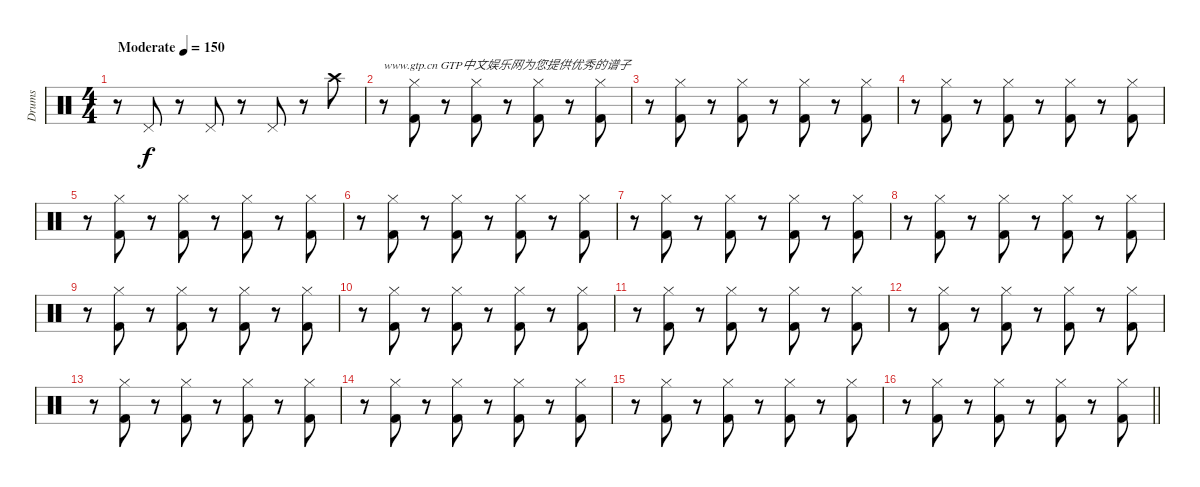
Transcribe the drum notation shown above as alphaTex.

\track ("Drums" "Drums") {instrument percussion}
\staff {score}
\articulation defaults
\ts (4 4)
\tempo (150 "Moderate")
\clef neutral
\ks c
r.8{dy f} "Pedal Hi-Hat (hit)".8 r.8 "Pedal Hi-Hat (hit)".8 r.8 "Pedal Hi-Hat (hit)".8 r.8 "Crash high (hit)".8 |
r.8{txt "www.gtp.cn GTP中文娱乐网为您提供优秀的谱子"} ("Kick (hit) 2" "Hi-Hat (closed)").8 r.8 ("Kick (hit) 2" "Hi-Hat (closed)").8 r.8 ("Kick (hit) 2" "Hi-Hat (closed)").8 r.8 ("Kick (hit) 2" "Hi-Hat (closed)").8 |
r.8 ("Kick (hit) 2" "Hi-Hat (closed)").8 r.8 ("Kick (hit) 2" "Hi-Hat (closed)").8 r.8 ("Kick (hit) 2" "Hi-Hat (closed)").8 r.8 ("Kick (hit) 2" "Hi-Hat (closed)").8 |
r.8 ("Kick (hit) 2" "Hi-Hat (closed)").8 r.8 ("Kick (hit) 2" "Hi-Hat (closed)").8 r.8 ("Kick (hit) 2" "Hi-Hat (closed)").8 r.8 ("Kick (hit) 2" "Hi-Hat (closed)").8 |
r.8 ("Kick (hit) 2" "Hi-Hat (closed)").8 r.8 ("Kick (hit) 2" "Hi-Hat (closed)").8 r.8 ("Kick (hit) 2" "Hi-Hat (closed)").8 r.8 ("Kick (hit) 2" "Hi-Hat (closed)").8 |
r.8 ("Kick (hit) 2" "Hi-Hat (closed)").8 r.8 ("Kick (hit) 2" "Hi-Hat (closed)").8 r.8 ("Kick (hit) 2" "Hi-Hat (closed)").8 r.8 ("Kick (hit) 2" "Hi-Hat (closed)").8 |
r.8 ("Kick (hit) 2" "Hi-Hat (closed)").8 r.8 ("Kick (hit) 2" "Hi-Hat (closed)").8 r.8 ("Kick (hit) 2" "Hi-Hat (closed)").8 r.8 ("Kick (hit) 2" "Hi-Hat (closed)").8 |
r.8 ("Kick (hit) 2" "Hi-Hat (closed)").8 r.8 ("Kick (hit) 2" "Hi-Hat (closed)").8 r.8 ("Kick (hit) 2" "Hi-Hat (closed)").8 r.8 ("Kick (hit) 2" "Hi-Hat (closed)").8 |
r.8 ("Kick (hit) 2" "Hi-Hat (closed)").8 r.8 ("Kick (hit) 2" "Hi-Hat (closed)").8 r.8 ("Kick (hit) 2" "Hi-Hat (closed)").8 r.8 ("Kick (hit) 2" "Hi-Hat (closed)").8 |
r.8 ("Kick (hit) 2" "Hi-Hat (closed)").8 r.8 ("Kick (hit) 2" "Hi-Hat (closed)").8 r.8 ("Kick (hit) 2" "Hi-Hat (closed)").8 r.8 ("Kick (hit) 2" "Hi-Hat (closed)").8 |
r.8 ("Kick (hit) 2" "Hi-Hat (closed)").8 r.8 ("Kick (hit) 2" "Hi-Hat (closed)").8 r.8 ("Kick (hit) 2" "Hi-Hat (closed)").8 r.8 ("Kick (hit) 2" "Hi-Hat (closed)").8 |
r.8 ("Kick (hit) 2" "Hi-Hat (closed)").8 r.8 ("Kick (hit) 2" "Hi-Hat (closed)").8 r.8 ("Kick (hit) 2" "Hi-Hat (closed)").8 r.8 ("Kick (hit) 2" "Hi-Hat (closed)").8 |
r.8 ("Kick (hit) 2" "Hi-Hat (closed)").8 r.8 ("Kick (hit) 2" "Hi-Hat (closed)").8 r.8 ("Kick (hit) 2" "Hi-Hat (closed)").8 r.8 ("Kick (hit) 2" "Hi-Hat (closed)").8 |
r.8 ("Kick (hit) 2" "Hi-Hat (closed)").8 r.8 ("Kick (hit) 2" "Hi-Hat (closed)").8 r.8 ("Kick (hit) 2" "Hi-Hat (closed)").8 r.8 ("Kick (hit) 2" "Hi-Hat (closed)").8 |
r.8 ("Kick (hit) 2" "Hi-Hat (closed)").8 r.8 ("Kick (hit) 2" "Hi-Hat (closed)").8 r.8 ("Kick (hit) 2" "Hi-Hat (closed)").8 r.8 ("Kick (hit) 2" "Hi-Hat (closed)").8 |
\barLineRight lightlight
r.8 ("Kick (hit) 2" "Hi-Hat (closed)").8 r.8 ("Kick (hit) 2" "Hi-Hat (closed)").8 r.8 ("Kick (hit) 2" "Hi-Hat (closed)").8 r.8 ("Kick (hit) 2" "Hi-Hat (closed)").8
